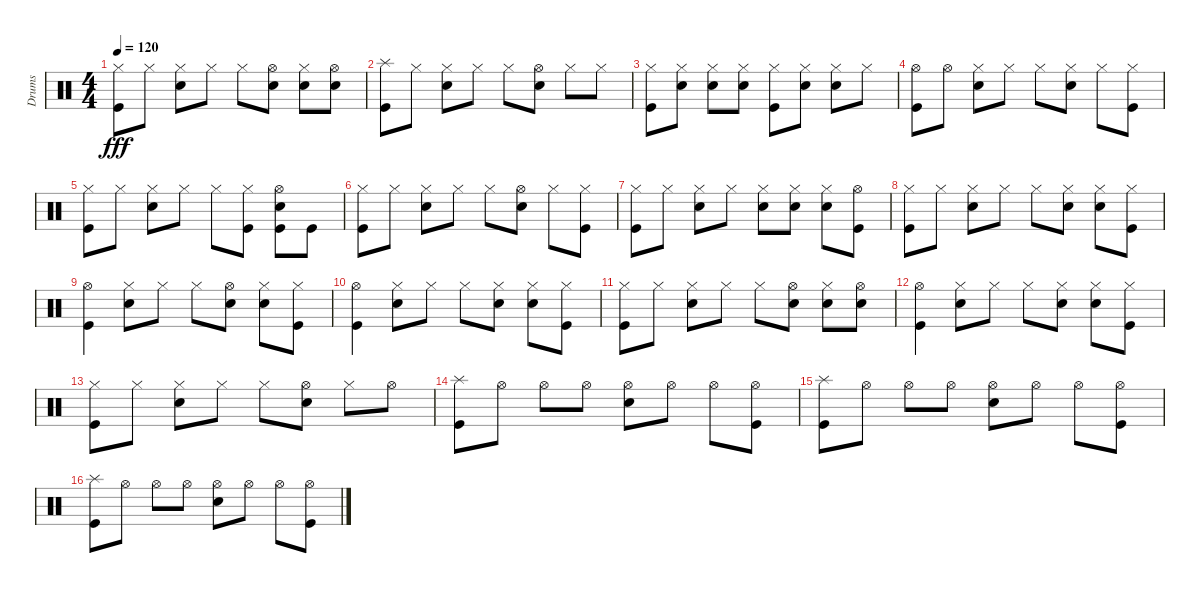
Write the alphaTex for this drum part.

\track ("Drums" "Drums") {instrument percussion}
\staff {score}
\articulation defaults
\ts (4 4)
\tempo 120
\clef neutral
\ks c
("Hi-Hat (closed)" "Kick (hit)").8{dy fff} "Hi-Hat (closed)".8 ("Hi-Hat (closed)" "Snare (hit) 2").8 "Hi-Hat (closed)".8 "Hi-Hat (closed)".8 ("Hi-Hat (open)" "Snare (hit) 2").8 ("Hi-Hat (closed)" "Snare (hit) 2").8 ("Hi-Hat (open)" "Snare (hit) 2").8 |
("Splash (hit)" "Kick (hit)").8 "Hi-Hat (closed)".8 ("Hi-Hat (closed)" "Snare (hit) 2").8 "Hi-Hat (closed)".8 "Hi-Hat (closed)".8 ("Hi-Hat (open)" "Snare (hit) 2").8 "Hi-Hat (closed)".8 "Hi-Hat (closed)".8 |
("Hi-Hat (closed)" "Kick (hit)").8 ("Hi-Hat (closed)" "Snare (hit) 2").8 ("Hi-Hat (closed)" "Snare (hit) 2").8 ("Hi-Hat (closed)" "Snare (hit) 2").8 ("Hi-Hat (closed)" "Kick (hit)").8 ("Hi-Hat (closed)" "Snare (hit) 2").8 ("Hi-Hat (closed)" "Snare (hit) 2").8 "Hi-Hat (closed)".8 |
("Hi-Hat (open)" "Kick (hit)").8 "Hi-Hat (open)".8 ("Hi-Hat (closed)" "Snare (hit) 2").8 "Hi-Hat (closed)".8 "Hi-Hat (closed)".8 ("Hi-Hat (closed)" "Snare (hit) 2").8 "Hi-Hat (closed)".8 ("Hi-Hat (closed)" "Kick (hit)").8 |
("Hi-Hat (closed)" "Kick (hit)").8 "Hi-Hat (closed)".8 ("Hi-Hat (closed)" "Snare (hit) 2").8 "Hi-Hat (closed)".8 "Hi-Hat (closed)".8 ("Hi-Hat (closed)" "Kick (hit)").8 ("Hi-Hat (open)" "Snare (hit) 2" "Kick (hit)").8 "Kick (hit)".8 |
("Hi-Hat (closed)" "Kick (hit)").8 "Hi-Hat (closed)".8 ("Hi-Hat (closed)" "Snare (hit) 2").8 "Hi-Hat (closed)".8 "Hi-Hat (closed)".8 ("Hi-Hat (open)" "Snare (hit) 2").8 "Hi-Hat (closed)".8 ("Hi-Hat (closed)" "Kick (hit)").8 |
("Hi-Hat (closed)" "Kick (hit)").8 "Hi-Hat (closed)".8 ("Hi-Hat (closed)" "Snare (hit) 2").8 "Hi-Hat (closed)".8 ("Hi-Hat (closed)" "Snare (hit) 2").8 ("Hi-Hat (closed)" "Snare (hit) 2").8 ("Hi-Hat (closed)" "Snare (hit) 2").8 ("Hi-Hat (open)" "Kick (hit)").8 |
("Hi-Hat (closed)" "Kick (hit)").8 "Hi-Hat (closed)".8 ("Hi-Hat (closed)" "Snare (hit) 2").8 "Hi-Hat (closed)".8 "Hi-Hat (closed)".8 ("Hi-Hat (closed)" "Snare (hit) 2").8 ("Hi-Hat (closed)" "Snare (hit) 2").8 ("Hi-Hat (closed)" "Kick (hit)").8 |
("Hi-Hat (open)" "Kick (hit)").4 ("Hi-Hat (closed)" "Snare (hit) 2").8 "Hi-Hat (closed)".8 "Hi-Hat (closed)".8 ("Hi-Hat (open)" "Snare (hit) 2").8 ("Hi-Hat (closed)" "Snare (hit) 2").8 ("Hi-Hat (closed)" "Kick (hit)").8 |
("Hi-Hat (open)" "Kick (hit)").4 ("Hi-Hat (closed)" "Snare (hit) 2").8 "Hi-Hat (closed)".8 "Hi-Hat (closed)".8 ("Hi-Hat (closed)" "Snare (hit) 2").8 ("Hi-Hat (closed)" "Snare (hit) 2").8 ("Hi-Hat (closed)" "Kick (hit)").8 |
("Hi-Hat (closed)" "Kick (hit)").8 "Hi-Hat (closed)".8 ("Hi-Hat (closed)" "Snare (hit) 2").8 "Hi-Hat (closed)".8 "Hi-Hat (closed)".8 ("Hi-Hat (open)" "Snare (hit) 2").8 ("Hi-Hat (closed)" "Snare (hit) 2").8 ("Hi-Hat (open)" "Snare (hit) 2").8 |
("Hi-Hat (open)" "Kick (hit)").4 ("Hi-Hat (closed)" "Snare (hit) 2").8 "Hi-Hat (closed)".8 "Hi-Hat (closed)".8 ("Hi-Hat (closed)" "Snare (hit) 2").8 ("Hi-Hat (closed)" "Snare (hit) 2").8 ("Hi-Hat (closed)" "Kick (hit)").8 |
("Hi-Hat (closed)" "Kick (hit)").8 "Hi-Hat (closed)".8 ("Hi-Hat (closed)" "Snare (hit) 2").8 "Hi-Hat (closed)".8 "Hi-Hat (closed)".8 ("Hi-Hat (open)" "Snare (hit) 2").8 "Hi-Hat (closed)".8 "Hi-Hat (open)".8 |
("Splash (hit)" "Kick (hit)").8 "Hi-Hat (open)".8 "Hi-Hat (open)".8 "Hi-Hat (open)".8 ("Hi-Hat (open)" "Snare (hit) 2").8 "Hi-Hat (open)".8 "Hi-Hat (open)".8 ("Hi-Hat (open)" "Kick (hit)").8 |
("Splash (hit)" "Kick (hit)").8 "Hi-Hat (open)".8 "Hi-Hat (open)".8 "Hi-Hat (open)".8 ("Hi-Hat (open)" "Snare (hit) 2").8 "Hi-Hat (open)".8 "Hi-Hat (open)".8 ("Hi-Hat (open)" "Kick (hit)").8 |
("Splash (hit)" "Kick (hit)").8 "Hi-Hat (open)".8 "Hi-Hat (open)".8 "Hi-Hat (open)".8 ("Hi-Hat (open)" "Snare (hit) 2").8 "Hi-Hat (open)".8 "Hi-Hat (open)".8 ("Hi-Hat (open)" "Kick (hit)").8
